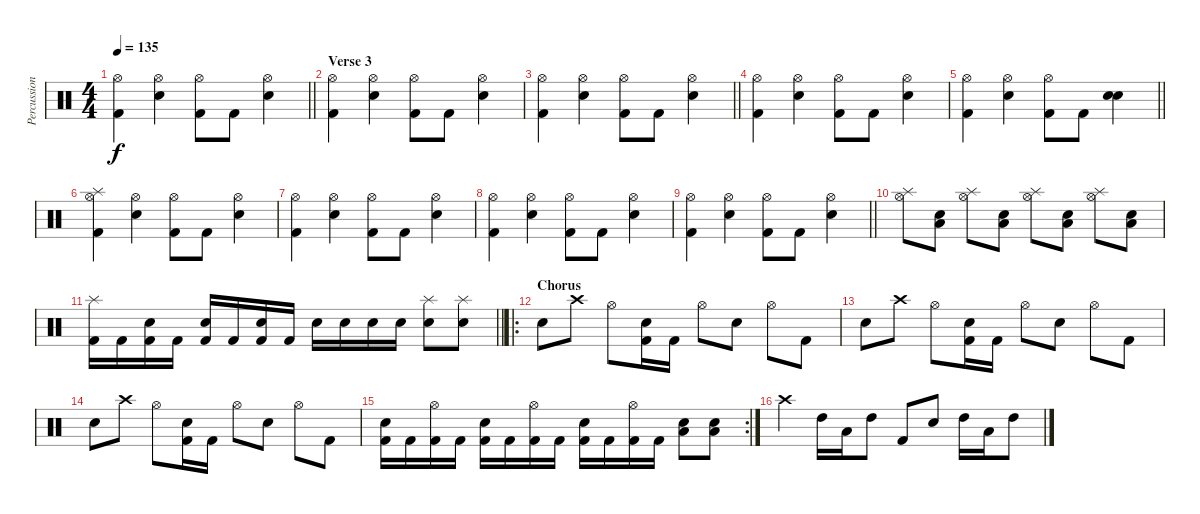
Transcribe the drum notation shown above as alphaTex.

\track ("Percussion" "Percussion") {instrument percussion}
\staff {score}
\articulation defaults
\ts (4 4)
\tempo 135
\clef neutral
\barLineRight lightlight
\ks c
("Hi-Hat (open)" "Kick (hit) 2").4{dy f} ("Hi-Hat (open)" "Snare (hit) 2").4 ("Hi-Hat (open)" "Kick (hit) 2").8 "Kick (hit) 2".8 ("Hi-Hat (open)" "Snare (hit) 2").4 |
\section ("" "Verse 3")
("Hi-Hat (open)" "Kick (hit) 2").4 ("Hi-Hat (open)" "Snare (hit) 2").4 ("Hi-Hat (open)" "Kick (hit) 2").8 "Kick (hit) 2".8 ("Hi-Hat (open)" "Snare (hit) 2").4 |
\barLineRight lightlight
("Hi-Hat (open)" "Kick (hit) 2").4 ("Hi-Hat (open)" "Snare (hit) 2").4 ("Hi-Hat (open)" "Kick (hit) 2").8 "Kick (hit) 2".8 ("Hi-Hat (open)" "Snare (hit) 2").4 |
("Hi-Hat (open)" "Kick (hit) 2").4 ("Hi-Hat (open)" "Snare (hit) 2").4 ("Hi-Hat (open)" "Kick (hit) 2").8 "Kick (hit) 2".8 ("Hi-Hat (open)" "Snare (hit) 2").4 |
\barLineRight lightlight
("Hi-Hat (open)" "Kick (hit) 2").4 ("Hi-Hat (open)" "Snare (hit) 2").4 ("Hi-Hat (open)" "Kick (hit) 2").8 "Kick (hit) 2".8 ("Electric Snare (hit)" "Snare (hit) 2").4 |
("Splash (hit)" "Hi-Hat (open)" "Kick (hit) 2").4 ("Hi-Hat (open)" "Snare (hit) 2").4 ("Hi-Hat (open)" "Kick (hit) 2").8 "Kick (hit) 2".8 ("Hi-Hat (open)" "Snare (hit) 2").4 |
("Hi-Hat (open)" "Kick (hit) 2").4 ("Hi-Hat (open)" "Snare (hit) 2").4 ("Hi-Hat (open)" "Kick (hit) 2").8 "Kick (hit) 2".8 ("Hi-Hat (open)" "Snare (hit) 2").4 |
("Hi-Hat (open)" "Kick (hit) 2").4 ("Hi-Hat (open)" "Snare (hit) 2").4 ("Hi-Hat (open)" "Kick (hit) 2").8 "Kick (hit) 2".8 ("Hi-Hat (open)" "Snare (hit) 2").4 |
\barLineRight lightlight
("Hi-Hat (open)" "Kick (hit) 2").4 ("Hi-Hat (open)" "Snare (hit) 2").4 ("Hi-Hat (open)" "Kick (hit) 2").8 "Kick (hit) 2".8 ("Hi-Hat (open)" "Snare (hit) 2").4 |
("Splash (hit)" "Hi-Hat (open)").8 ("Low Floor Tom (hit)" "Snare (hit) 2").8 ("Splash (hit)" "Hi-Hat (open)").8 ("Low Floor Tom (hit)" "Snare (hit) 2").8 ("Splash (hit)" "Hi-Hat (open)").8 ("Low Floor Tom (hit)" "Snare (hit) 2").8 ("Splash (hit)" "Hi-Hat (open)").8 ("Low Floor Tom (hit)" "Snare (hit) 2").8 |
\barLineRight lightlight
("Splash (hit)" "Kick (hit) 2").16 "Kick (hit) 2".16 ("Snare (hit) 2" "Kick (hit) 2").16 "Kick (hit) 2".16 ("Snare (hit) 2" "Kick (hit) 2").16 "Kick (hit) 2".16 ("Snare (hit) 2" "Kick (hit) 2").16 "Kick (hit) 2".16 "Snare (hit) 2".16 "Snare (hit) 2".16 "Snare (hit) 2".16 "Snare (hit) 2".16 ("Splash (hit)" "Snare (hit) 2").8 ("Splash (hit)" "Snare (hit) 2").8 |
\ro
\section ("" "Chorus")
"Snare (hit) 2".8 "Crash high (hit)".8 "Hi-Hat (open)".8 ("Snare (hit) 2" "Kick (hit) 2").16 "Kick (hit) 2".16 "Hi-Hat (open)".8 "Snare (hit) 2".8 "Hi-Hat (open)".8 "Kick (hit) 2".8 |
"Snare (hit) 2".8 "Crash high (hit)".8 "Hi-Hat (open)".8 ("Snare (hit) 2" "Kick (hit) 2").16 "Kick (hit) 2".16 "Hi-Hat (open)".8 "Snare (hit) 2".8 "Hi-Hat (open)".8 "Kick (hit) 2".8 |
"Snare (hit) 2".8 "Crash high (hit)".8 "Hi-Hat (open)".8 ("Snare (hit) 2" "Kick (hit) 2").16 "Kick (hit) 2".16 "Hi-Hat (open)".8 "Snare (hit) 2".8 "Hi-Hat (open)".8 "Kick (hit) 2".8 |
\rc 2
("Snare (hit) 2" "Kick (hit) 2").16 "Kick (hit) 2".16 ("Hi-Hat (open)" "Kick (hit) 2").16 "Kick (hit) 2".16 ("Snare (hit) 2" "Kick (hit) 2").16 "Kick (hit) 2".16 ("Hi-Hat (open)" "Kick (hit) 2").16 "Kick (hit) 2".16 ("Snare (hit) 2" "Kick (hit) 2").16 "Kick (hit) 2".16 ("Hi-Hat (open)" "Kick (hit) 2").16 "Kick (hit) 2".16 ("Low Floor Tom (hit)" "Snare (hit) 2").8 ("Low Floor Tom (hit)" "Snare (hit) 2").8 |
"Crash high (hit)".4 "High Tom (hit)".16 "Low Tom (hit)".16 "High Tom (hit)".8 "Kick (hit) 2".8 "Snare (hit) 2".8 "High Tom (hit)".16 "Low Tom (hit)".16 "High Tom (hit)".8
